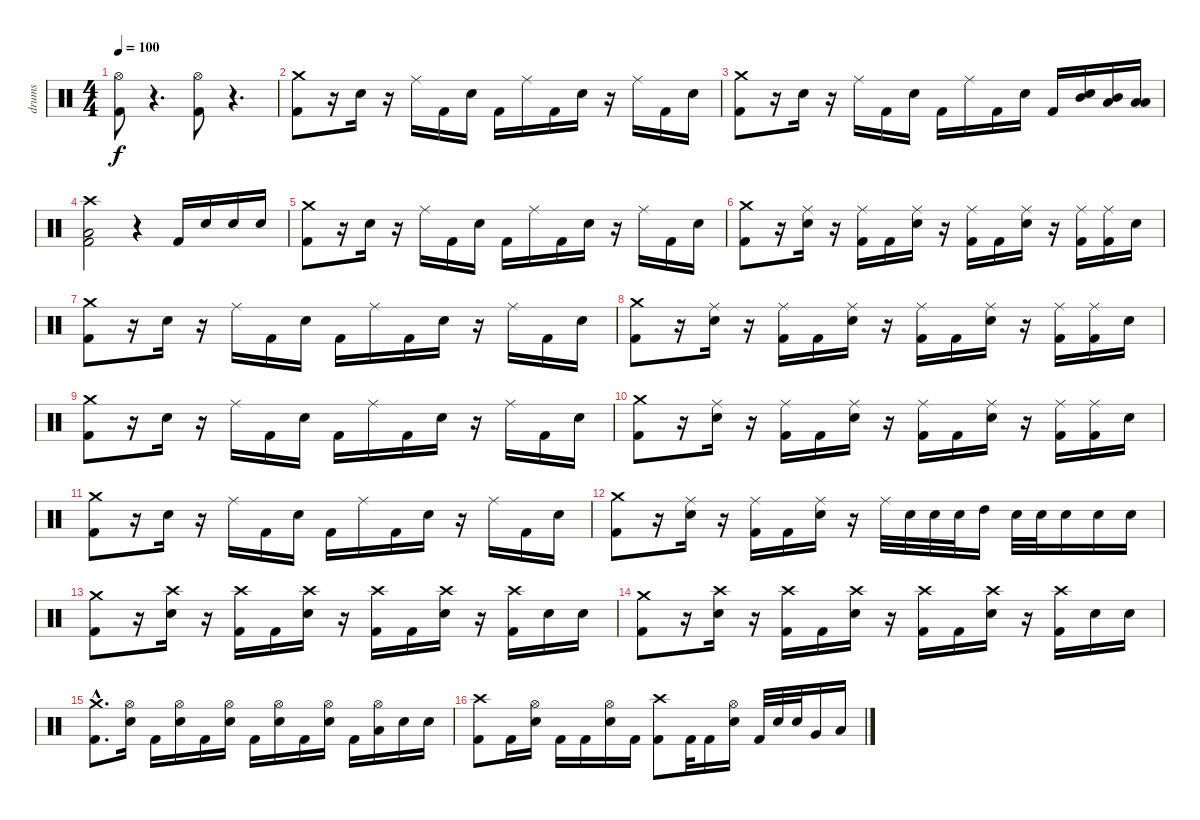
\track ("drums" "drums") {instrument percussion}
\staff {score}
\articulation defaults
\ts (4 4)
\tempo 100
\clef neutral
\ks aminor
("Hi-Hat (open)" "Kick (hit) 2").8{dy f} r.4{d} ("Hi-Hat (open)" "Kick (hit) 2").8 r.4{d} |
("Crash medium (hit)" "Kick (hit) 2").8 r.16 "Snare (hit) 2".16 r.16 "Ride (middle)".16 "Kick (hit) 2".16 "Snare (hit) 2".16 "Kick (hit) 2".16 "Ride (middle)".16 "Kick (hit) 2".16 "Snare (hit) 2".16 r.16 "Ride (middle)".16 "Kick (hit) 2".16 "Snare (hit) 2".16 |
("Crash medium (hit)" "Kick (hit) 2").8 r.16 "Snare (hit) 2".16 r.16 "Ride (middle)".16 "Kick (hit) 2".16 "Snare (hit) 2".16 "Kick (hit) 2".16 "Ride (middle)".16 "Kick (hit) 2".16 "Snare (hit) 2".16 "Kick (hit) 2".16 ("Mid Tom (hit)" "Snare (hit) 2").16 ("Low Tom (hit)" "Mid Tom (hit)").16 ("Low Floor Tom (hit)" "Low Tom (hit)").16 |
("Crash high (hit)" "Low Floor Tom (hit)" "Kick (hit) 2").2 r.4 "Kick (hit) 2".16 "Snare (hit) 2".16 "Snare (hit) 2".16 "Snare (hit) 2".16 |
("Crash medium (hit)" "Kick (hit) 2").8 r.16 "Snare (hit) 2".16 r.16 "Ride (middle)".16 "Kick (hit) 2".16 "Snare (hit) 2".16 "Kick (hit) 2".16 "Ride (middle)".16 "Kick (hit) 2".16 "Snare (hit) 2".16 r.16 "Ride (middle)".16 "Kick (hit) 2".16 "Snare (hit) 2".16 |
("Crash medium (hit)" "Kick (hit) 2").8 r.16 ("Ride (middle)" "Snare (hit) 2").16 r.16 ("Ride (middle)" "Kick (hit) 2").16 "Kick (hit) 2".16 ("Ride (middle)" "Snare (hit) 2").16 r.16 ("Ride (middle)" "Kick (hit) 2").16 "Kick (hit) 2".16 ("Ride (middle)" "Snare (hit) 2").16 r.16 ("Ride (middle)" "Kick (hit) 2").16 ("Ride (middle)" "Kick (hit) 2").16 "Snare (hit) 2".16 |
("Crash medium (hit)" "Kick (hit) 2").8 r.16 "Snare (hit) 2".16 r.16 "Ride (middle)".16 "Kick (hit) 2".16 "Snare (hit) 2".16 "Kick (hit) 2".16 "Ride (middle)".16 "Kick (hit) 2".16 "Snare (hit) 2".16 r.16 "Ride (middle)".16 "Kick (hit) 2".16 "Snare (hit) 2".16 |
("Crash medium (hit)" "Kick (hit) 2").8 r.16 ("Ride (middle)" "Snare (hit) 2").16 r.16 ("Ride (middle)" "Kick (hit) 2").16 "Kick (hit) 2".16 ("Ride (middle)" "Snare (hit) 2").16 r.16 ("Ride (middle)" "Kick (hit) 2").16 "Kick (hit) 2".16 ("Ride (middle)" "Snare (hit) 2").16 r.16 ("Ride (middle)" "Kick (hit) 2").16 ("Ride (middle)" "Kick (hit) 2").16 "Snare (hit) 2".16 |
("Crash medium (hit)" "Kick (hit) 2").8 r.16 "Snare (hit) 2".16 r.16 "Ride (middle)".16 "Kick (hit) 2".16 "Snare (hit) 2".16 "Kick (hit) 2".16 "Ride (middle)".16 "Kick (hit) 2".16 "Snare (hit) 2".16 r.16 "Ride (middle)".16 "Kick (hit) 2".16 "Snare (hit) 2".16 |
("Crash medium (hit)" "Kick (hit) 2").8 r.16 ("Ride (middle)" "Snare (hit) 2").16 r.16 ("Ride (middle)" "Kick (hit) 2").16 "Kick (hit) 2".16 ("Ride (middle)" "Snare (hit) 2").16 r.16 ("Ride (middle)" "Kick (hit) 2").16 "Kick (hit) 2".16 ("Ride (middle)" "Snare (hit) 2").16 r.16 ("Ride (middle)" "Kick (hit) 2").16 ("Ride (middle)" "Kick (hit) 2").16 "Snare (hit) 2".16 |
("Crash medium (hit)" "Kick (hit) 2").8 r.16 "Snare (hit) 2".16 r.16 "Ride (middle)".16 "Kick (hit) 2".16 "Snare (hit) 2".16 "Kick (hit) 2".16 "Ride (middle)".16 "Kick (hit) 2".16 "Snare (hit) 2".16 r.16 "Ride (middle)".16 "Kick (hit) 2".16 "Snare (hit) 2".16 |
("Crash medium (hit)" "Kick (hit) 2").8 r.16 ("Ride (middle)" "Snare (hit) 2").16 r.16 ("Ride (middle)" "Kick (hit) 2").16 "Kick (hit) 2".16 ("Ride (middle)" "Snare (hit) 2").16 r.16 "Ride (middle)".32 "Snare (hit) 2".32 "Snare (hit) 2".32 "Snare (hit) 2".32 "High Tom (hit)".16 "Snare (hit) 2".32 "Snare (hit) 2".32 "Snare (hit) 2".16 "Snare (hit) 2".16 "Snare (hit) 2".16 |
("Crash medium (hit)" "Kick (hit) 2").8 r.16 ("Crash high (hit)" "Snare (hit) 2").16 r.16 ("Crash high (hit)" "Kick (hit) 2").16 "Kick (hit) 2".16 ("Crash high (hit)" "Snare (hit) 2").16 r.16 ("Crash high (hit)" "Kick (hit) 2").16 "Kick (hit) 2".16 ("Crash high (hit)" "Snare (hit) 2").16 r.16 ("Crash high (hit)" "Kick (hit) 2").16 "Snare (hit) 2".16 "Snare (hit) 2".16 |
("Crash medium (hit)" "Kick (hit) 2").8 r.16 ("Crash high (hit)" "Snare (hit) 2").16 r.16 ("Crash high (hit)" "Kick (hit) 2").16 "Kick (hit) 2".16 ("Crash high (hit)" "Snare (hit) 2").16 r.16 ("Crash high (hit)" "Kick (hit) 2").16 "Kick (hit) 2".16 ("Crash high (hit)" "Snare (hit) 2").16 r.16 ("Crash high (hit)" "Kick (hit) 2").16 "Snare (hit) 2".16 "Snare (hit) 2".16 |
("Crash medium (hit)"{hac} "Kick (hit) 2"{hac}).8{d} ("Hi-Hat (open)" "Snare (hit) 2").16 "Kick (hit) 2".16 ("Hi-Hat (open)" "Snare (hit) 2").16 "Kick (hit) 2".16 ("Hi-Hat (open)" "Snare (hit) 2").16 "Kick (hit) 2".16 ("Hi-Hat (open)" "Snare (hit) 2").16 "Kick (hit) 2".16 ("Hi-Hat (open)" "Snare (hit) 2").16 "Kick (hit) 2".16 ("Hi-Hat (open)" "Low Floor Tom (hit)").16 "Snare (hit) 2".16 "Snare (hit) 2".16 |
("Crash high (hit)" "Kick (hit) 2").8 "Kick (hit) 2".16 ("Hi-Hat (open)" "Snare (hit) 2").16 "Kick (hit) 2".16 "Kick (hit) 2".16 ("Hi-Hat (open)" "Snare (hit) 2").16 "Kick (hit) 2".16 ("Crash high (hit)" "Kick (hit) 2").8 "Kick (hit) 2".32 "Kick (hit) 2".16 ("Hi-Hat (open)" "Snare (hit) 2").16 "Kick (hit) 2".32 "Snare (hit) 2".32 "Snare (hit) 2".32 "Very Low Tom (hit)".16 "Low Floor Tom (hit)".16
